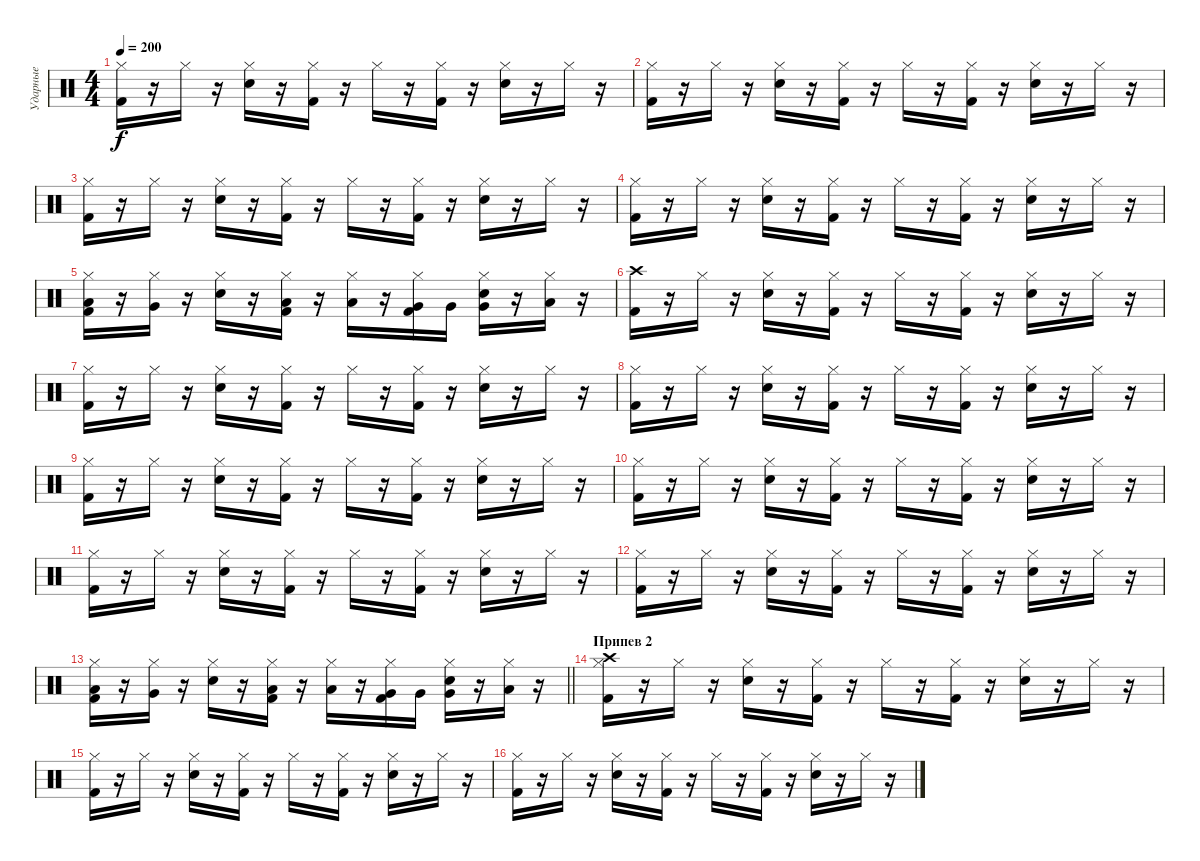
\track ("Ударные" "Ударные") {instrument percussion}
\staff {score}
\articulation defaults
\ts (4 4)
\tempo 200
\clef neutral
\ks c
("Kick (hit) 2" "Hi-Hat (closed)").16{dy f} r.16 "Hi-Hat (closed)".16 r.16 ("Snare (hit) 2" "Hi-Hat (closed)").16 r.16 ("Kick (hit) 2" "Hi-Hat (closed)").16 r.16 "Hi-Hat (closed)".16 r.16 ("Kick (hit) 2" "Hi-Hat (closed)").16 r.16 ("Snare (hit) 2" "Hi-Hat (closed)").16 r.16 "Hi-Hat (closed)".16 r.16 |
("Kick (hit) 2" "Hi-Hat (closed)").16 r.16 "Hi-Hat (closed)".16 r.16 ("Snare (hit) 2" "Hi-Hat (closed)").16 r.16 ("Kick (hit) 2" "Hi-Hat (closed)").16 r.16 "Hi-Hat (closed)".16 r.16 ("Kick (hit) 2" "Hi-Hat (closed)").16 r.16 ("Snare (hit) 2" "Hi-Hat (closed)").16 r.16 "Hi-Hat (closed)".16 r.16 |
("Kick (hit) 2" "Hi-Hat (closed)").16 r.16 "Hi-Hat (closed)".16 r.16 ("Snare (hit) 2" "Hi-Hat (closed)").16 r.16 ("Kick (hit) 2" "Hi-Hat (closed)").16 r.16 "Hi-Hat (closed)".16 r.16 ("Kick (hit) 2" "Hi-Hat (closed)").16 r.16 ("Snare (hit) 2" "Hi-Hat (closed)").16 r.16 "Hi-Hat (closed)".16 r.16 |
("Kick (hit) 2" "Hi-Hat (closed)").16 r.16 "Hi-Hat (closed)".16 r.16 ("Snare (hit) 2" "Hi-Hat (closed)").16 r.16 ("Kick (hit) 2" "Hi-Hat (closed)").16 r.16 "Hi-Hat (closed)".16 r.16 ("Kick (hit) 2" "Hi-Hat (closed)").16 r.16 ("Snare (hit) 2" "Hi-Hat (closed)").16 r.16 "Hi-Hat (closed)".16 r.16 |
("Kick (hit) 2" "Low Floor Tom (hit)" "Hi-Hat (closed)").16 r.16 ("Very Low Tom (hit)" "Hi-Hat (closed)").16 r.16 ("Snare (hit) 2" "Hi-Hat (closed)").16 r.16 ("Kick (hit) 2" "Low Floor Tom (hit)" "Hi-Hat (closed)").16 r.16 ("Low Floor Tom (hit)" "Hi-Hat (closed)").16 r.16 ("Kick (hit) 2" "Very Low Tom (hit)" "Hi-Hat (closed)").16 "Very Low Tom (hit)".16 ("Snare (hit) 2" "Very Low Tom (hit)" "Hi-Hat (closed)").16 r.16 ("Low Tom (hit)" "Hi-Hat (closed)").16 r.16 |
("Kick (hit) 2" "Crash high (hit)").16 r.16 "Hi-Hat (closed)".16 r.16 ("Snare (hit) 2" "Hi-Hat (closed)").16 r.16 ("Kick (hit) 2" "Hi-Hat (closed)").16 r.16 "Hi-Hat (closed)".16 r.16 ("Kick (hit) 2" "Hi-Hat (closed)").16 r.16 ("Snare (hit) 2" "Hi-Hat (closed)").16 r.16 "Hi-Hat (closed)".16 r.16 |
("Kick (hit) 2" "Hi-Hat (closed)").16 r.16 "Hi-Hat (closed)".16 r.16 ("Snare (hit) 2" "Hi-Hat (closed)").16 r.16 ("Kick (hit) 2" "Hi-Hat (closed)").16 r.16 "Hi-Hat (closed)".16 r.16 ("Kick (hit) 2" "Hi-Hat (closed)").16 r.16 ("Snare (hit) 2" "Hi-Hat (closed)").16 r.16 "Hi-Hat (closed)".16 r.16 |
("Kick (hit) 2" "Hi-Hat (closed)").16 r.16 "Hi-Hat (closed)".16 r.16 ("Snare (hit) 2" "Hi-Hat (closed)").16 r.16 ("Kick (hit) 2" "Hi-Hat (closed)").16 r.16 "Hi-Hat (closed)".16 r.16 ("Kick (hit) 2" "Hi-Hat (closed)").16 r.16 ("Snare (hit) 2" "Hi-Hat (closed)").16 r.16 "Hi-Hat (closed)".16 r.16 |
("Kick (hit) 2" "Hi-Hat (closed)").16 r.16 "Hi-Hat (closed)".16 r.16 ("Snare (hit) 2" "Hi-Hat (closed)").16 r.16 ("Kick (hit) 2" "Hi-Hat (closed)").16 r.16 "Hi-Hat (closed)".16 r.16 ("Kick (hit) 2" "Hi-Hat (closed)").16 r.16 ("Snare (hit) 2" "Hi-Hat (closed)").16 r.16 "Hi-Hat (closed)".16 r.16 |
("Kick (hit) 2" "Hi-Hat (closed)").16 r.16 "Hi-Hat (closed)".16 r.16 ("Snare (hit) 2" "Hi-Hat (closed)").16 r.16 ("Kick (hit) 2" "Hi-Hat (closed)").16 r.16 "Hi-Hat (closed)".16 r.16 ("Kick (hit) 2" "Hi-Hat (closed)").16 r.16 ("Snare (hit) 2" "Hi-Hat (closed)").16 r.16 "Hi-Hat (closed)".16 r.16 |
("Kick (hit) 2" "Hi-Hat (closed)").16 r.16 "Hi-Hat (closed)".16 r.16 ("Snare (hit) 2" "Hi-Hat (closed)").16 r.16 ("Kick (hit) 2" "Hi-Hat (closed)").16 r.16 "Hi-Hat (closed)".16 r.16 ("Kick (hit) 2" "Hi-Hat (closed)").16 r.16 ("Snare (hit) 2" "Hi-Hat (closed)").16 r.16 "Hi-Hat (closed)".16 r.16 |
("Kick (hit) 2" "Hi-Hat (closed)").16 r.16 "Hi-Hat (closed)".16 r.16 ("Snare (hit) 2" "Hi-Hat (closed)").16 r.16 ("Kick (hit) 2" "Hi-Hat (closed)").16 r.16 "Hi-Hat (closed)".16 r.16 ("Kick (hit) 2" "Hi-Hat (closed)").16 r.16 ("Snare (hit) 2" "Hi-Hat (closed)").16 r.16 "Hi-Hat (closed)".16 r.16 |
\barLineRight lightlight
("Kick (hit) 2" "Low Floor Tom (hit)" "Hi-Hat (closed)").16 r.16 ("Very Low Tom (hit)" "Hi-Hat (closed)").16 r.16 ("Snare (hit) 2" "Hi-Hat (closed)").16 r.16 ("Kick (hit) 2" "Low Floor Tom (hit)" "Hi-Hat (closed)").16 r.16 ("Low Floor Tom (hit)" "Hi-Hat (closed)").16 r.16 ("Kick (hit) 2" "Very Low Tom (hit)" "Hi-Hat (closed)").16 "Very Low Tom (hit)".16 ("Snare (hit) 2" "Very Low Tom (hit)" "Hi-Hat (closed)").16 r.16 ("Low Tom (hit)" "Hi-Hat (closed)").16 r.16 |
\section ("" "Припев 2")
("Kick (hit) 2" "Crash high (hit)" "Hi-Hat (closed)").16 r.16 "Hi-Hat (closed)".16 r.16 ("Snare (hit) 2" "Hi-Hat (closed)").16 r.16 ("Kick (hit) 2" "Hi-Hat (closed)").16 r.16 "Hi-Hat (closed)".16 r.16 ("Kick (hit) 2" "Hi-Hat (closed)").16 r.16 ("Snare (hit) 2" "Hi-Hat (closed)").16 r.16 "Hi-Hat (closed)".16 r.16 |
("Kick (hit) 2" "Hi-Hat (closed)").16 r.16 "Hi-Hat (closed)".16 r.16 ("Snare (hit) 2" "Hi-Hat (closed)").16 r.16 ("Kick (hit) 2" "Hi-Hat (closed)").16 r.16 "Hi-Hat (closed)".16 r.16 ("Kick (hit) 2" "Hi-Hat (closed)").16 r.16 ("Snare (hit) 2" "Hi-Hat (closed)").16 r.16 "Hi-Hat (closed)".16 r.16 |
("Kick (hit) 2" "Hi-Hat (closed)").16 r.16 "Hi-Hat (closed)".16 r.16 ("Snare (hit) 2" "Hi-Hat (closed)").16 r.16 ("Kick (hit) 2" "Hi-Hat (closed)").16 r.16 "Hi-Hat (closed)".16 r.16 ("Kick (hit) 2" "Hi-Hat (closed)").16 r.16 ("Snare (hit) 2" "Hi-Hat (closed)").16 r.16 "Hi-Hat (closed)".16 r.16
